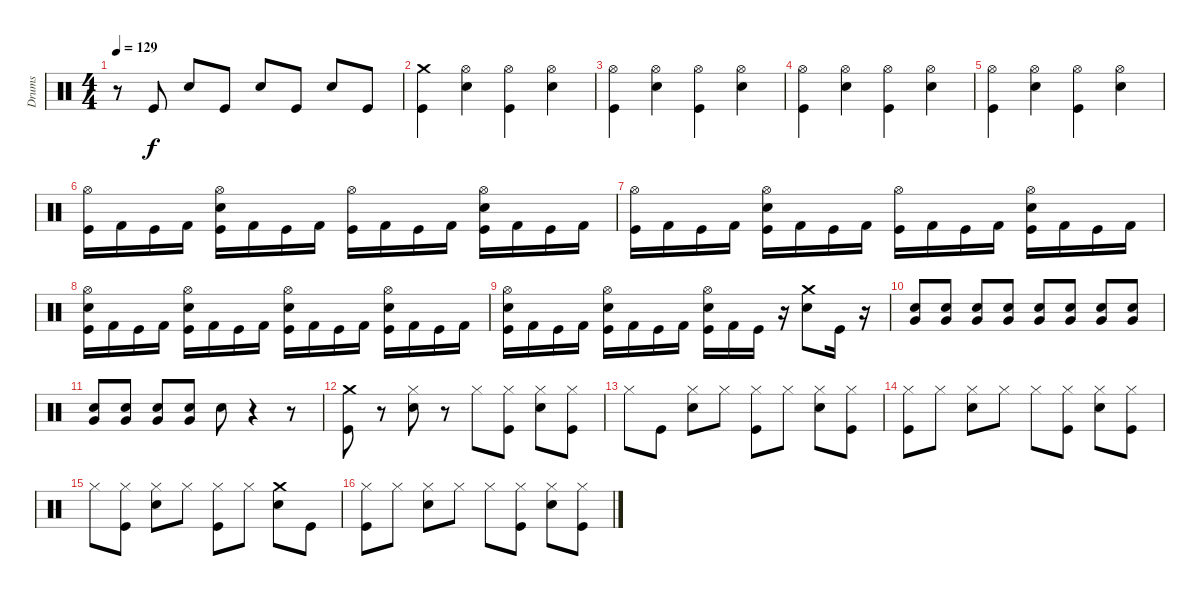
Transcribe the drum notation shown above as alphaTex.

\track ("Drums" "Drums") {instrument percussion}
\staff {score}
\articulation defaults
\ts (4 4)
\tempo 129
\clef neutral
\ks c
r.8{dy f} "Kick (hit)".8 "Snare (hit) 2".8 "Kick (hit)".8 "Snare (hit) 2".8 "Kick (hit)".8 "Snare (hit) 2".8 "Kick (hit)".8 |
("Kick (hit)" "Crash medium (hit)").4 ("Snare (hit) 2" "Hi-Hat (open)").4 ("Kick (hit)" "Hi-Hat (open)").4 ("Snare (hit) 2" "Hi-Hat (open)").4 |
("Kick (hit)" "Hi-Hat (open)").4 ("Snare (hit) 2" "Hi-Hat (open)").4 ("Kick (hit)" "Hi-Hat (open)").4 ("Snare (hit) 2" "Hi-Hat (open)").4 |
("Kick (hit)" "Hi-Hat (open)").4 ("Snare (hit) 2" "Hi-Hat (open)").4 ("Kick (hit)" "Hi-Hat (open)").4 ("Snare (hit) 2" "Hi-Hat (open)").4 |
("Kick (hit)" "Hi-Hat (open)").4 ("Snare (hit) 2" "Hi-Hat (open)").4 ("Kick (hit)" "Hi-Hat (open)").4 ("Snare (hit) 2" "Hi-Hat (open)").4 |
("Kick (hit)" "Hi-Hat (open)").16 "Kick (hit) 2".16 "Kick (hit)".16 "Kick (hit) 2".16 ("Kick (hit)" "Snare (hit) 2" "Hi-Hat (open)").16 "Kick (hit) 2".16 "Kick (hit)".16 "Kick (hit) 2".16 ("Kick (hit)" "Hi-Hat (open)").16 "Kick (hit) 2".16 "Kick (hit)".16 "Kick (hit) 2".16 ("Kick (hit)" "Snare (hit) 2" "Hi-Hat (open)").16 "Kick (hit) 2".16 "Kick (hit)".16 "Kick (hit) 2".16 |
("Kick (hit)" "Hi-Hat (open)").16 "Kick (hit) 2".16 "Kick (hit)".16 "Kick (hit) 2".16 ("Kick (hit)" "Snare (hit) 2" "Hi-Hat (open)").16 "Kick (hit) 2".16 "Kick (hit)".16 "Kick (hit) 2".16 ("Kick (hit)" "Hi-Hat (open)").16 "Kick (hit) 2".16 "Kick (hit)".16 "Kick (hit) 2".16 ("Kick (hit)" "Snare (hit) 2" "Hi-Hat (open)").16 "Kick (hit) 2".16 "Kick (hit)".16 "Kick (hit) 2".16 |
("Snare (hit) 2" "Kick (hit)" "Hi-Hat (open)").16 "Kick (hit) 2".16 "Kick (hit)".16 "Kick (hit) 2".16 ("Kick (hit)" "Snare (hit) 2" "Hi-Hat (open)").16 "Kick (hit) 2".16 "Kick (hit)".16 "Kick (hit) 2".16 ("Snare (hit) 2" "Kick (hit)" "Hi-Hat (open)").16 "Kick (hit) 2".16 "Kick (hit)".16 "Kick (hit) 2".16 ("Kick (hit)" "Snare (hit) 2" "Hi-Hat (open)").16 "Kick (hit) 2".16 "Kick (hit)".16 "Kick (hit) 2".16 |
("Snare (hit) 2" "Kick (hit)" "Hi-Hat (open)").16 "Kick (hit) 2".16 "Kick (hit)".16 "Kick (hit) 2".16 ("Kick (hit)" "Snare (hit) 2" "Hi-Hat (open)").16 "Kick (hit) 2".16 "Kick (hit)".16 "Kick (hit) 2".16 ("Snare (hit) 2" "Kick (hit)" "Hi-Hat (open)").16 "Kick (hit) 2".16 "Kick (hit)".16 r.16 ("Crash medium (hit)" "Snare (hit) 2").8 "Kick (hit)".16 r.16 |
("Very Low Tom (hit)" "Snare (hit) 2").8 ("Snare (hit) 2" "Very Low Tom (hit)").8 ("Snare (hit) 2" "Very Low Tom (hit)").8 ("Snare (hit) 2" "Very Low Tom (hit)").8 ("Snare (hit) 2" "Very Low Tom (hit)").8 ("Snare (hit) 2" "Very Low Tom (hit)").8 ("Snare (hit) 2" "Very Low Tom (hit)").8 ("Snare (hit) 2" "Very Low Tom (hit)").8 |
("Very Low Tom (hit)" "Snare (hit) 2").8 ("Snare (hit) 2" "Very Low Tom (hit)").8 ("Very Low Tom (hit)" "Snare (hit) 2").8 ("Snare (hit) 2" "Very Low Tom (hit)").8 "Snare (hit) 2".8 r.4 r.8 |
("Crash medium (hit)" "Kick (hit)").8 r.8 ("Snare (hit) 2" "Hi-Hat (closed)").8 r.8 "Hi-Hat (closed)".8 ("Hi-Hat (closed)" "Kick (hit)").8 ("Hi-Hat (closed)" "Snare (hit) 2").8 ("Hi-Hat (closed)" "Kick (hit)").8 |
"Hi-Hat (closed)".8 "Kick (hit)".8 ("Snare (hit) 2" "Hi-Hat (closed)").8 "Hi-Hat (closed)".8 ("Kick (hit)" "Hi-Hat (closed)").8 "Hi-Hat (closed)".8 ("Hi-Hat (closed)" "Snare (hit) 2").8 ("Hi-Hat (closed)" "Kick (hit)").8 |
("Hi-Hat (closed)" "Kick (hit)").8 "Hi-Hat (closed)".8 ("Snare (hit) 2" "Hi-Hat (closed)").8 "Hi-Hat (closed)".8 "Hi-Hat (closed)".8 ("Hi-Hat (closed)" "Kick (hit)").8 ("Hi-Hat (closed)" "Snare (hit) 2").8 ("Hi-Hat (closed)" "Kick (hit)").8 |
"Hi-Hat (closed)".8 ("Kick (hit)" "Hi-Hat (closed)").8 ("Snare (hit) 2" "Hi-Hat (closed)").8 "Hi-Hat (closed)".8 ("Kick (hit)" "Hi-Hat (closed)").8 "Hi-Hat (closed)".8 ("Crash medium (hit)" "Snare (hit) 2").8 "Kick (hit)".8 |
("Hi-Hat (closed)" "Kick (hit)").8 "Hi-Hat (closed)".8 ("Snare (hit) 2" "Hi-Hat (closed)").8 "Hi-Hat (closed)".8 "Hi-Hat (closed)".8 ("Hi-Hat (closed)" "Kick (hit)").8 ("Hi-Hat (closed)" "Snare (hit) 2").8 ("Hi-Hat (closed)" "Kick (hit)").8
